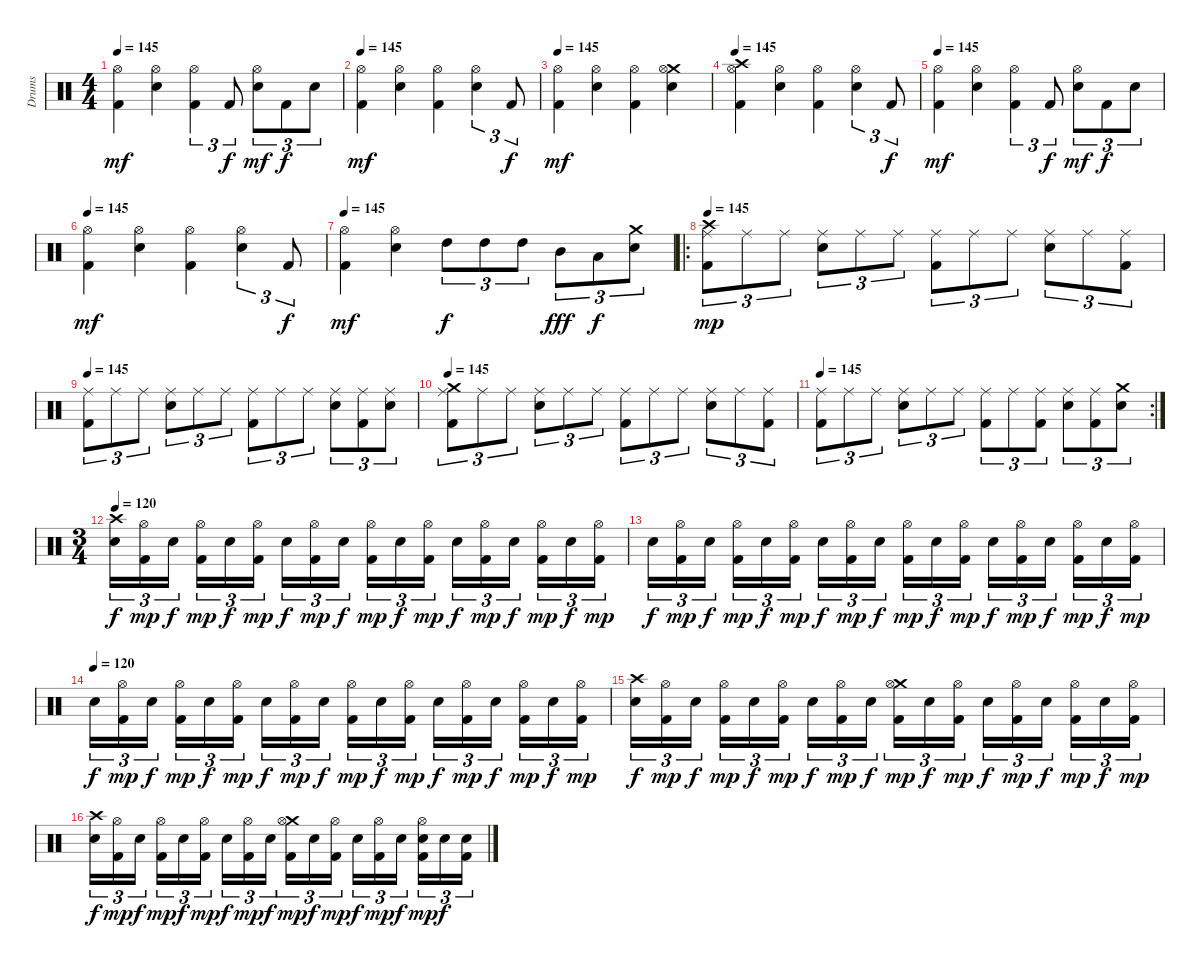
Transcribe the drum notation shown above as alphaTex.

\track ("Drums" "Drums") {instrument percussion}
\staff {score}
\articulation defaults
\ts (4 4)
\tempo 145
\clef neutral
\ks c
("Hi-Hat (open)" "Kick (hit) 2").4{dy mf} ("Hi-Hat (open)" "Electric Snare (hit)").4 ("Hi-Hat (open)" "Kick (hit) 2").4{tu (3 2)} "Kick (hit) 2".8{tu (3 2) dy f} ("Hi-Hat (open)" "Electric Snare (hit)").8{tu (3 2) dy mf} "Kick (hit) 2".8{tu (3 2) dy f} "Electric Snare (hit)".8{tu (3 2)} |
\tempo 145
("Hi-Hat (open)" "Kick (hit) 2").4{dy mf} ("Hi-Hat (open)" "Electric Snare (hit)").4 ("Hi-Hat (open)" "Kick (hit) 2").4 ("Hi-Hat (open)" "Electric Snare (hit)").4{tu (3 2)} "Kick (hit) 2".8{tu (3 2) dy f} |
\tempo 145
("Hi-Hat (open)" "Kick (hit) 2").4{dy mf} ("Hi-Hat (open)" "Electric Snare (hit)").4 ("Hi-Hat (open)" "Kick (hit) 2").4 ("Crash medium (hit)" "Hi-Hat (open)" "Electric Snare (hit)").4 |
\tempo 145
("Crash high (hit)" "Hi-Hat (open)" "Kick (hit) 2").4 ("Hi-Hat (open)" "Electric Snare (hit)").4 ("Hi-Hat (open)" "Kick (hit) 2").4 ("Hi-Hat (open)" "Electric Snare (hit)").4{tu (3 2)} "Kick (hit) 2".8{tu (3 2) dy f} |
\tempo 145
("Hi-Hat (open)" "Kick (hit) 2").4{dy mf} ("Hi-Hat (open)" "Electric Snare (hit)").4 ("Hi-Hat (open)" "Kick (hit) 2").4{tu (3 2)} "Kick (hit) 2".8{tu (3 2) dy f} ("Hi-Hat (open)" "Electric Snare (hit)").8{tu (3 2) dy mf} "Kick (hit) 2".8{tu (3 2) dy f} "Electric Snare (hit)".8{tu (3 2)} |
\tempo 145
("Hi-Hat (open)" "Kick (hit) 2").4{dy mf} ("Hi-Hat (open)" "Electric Snare (hit)").4 ("Hi-Hat (open)" "Kick (hit) 2").4 ("Hi-Hat (open)" "Electric Snare (hit)").4{tu (3 2)} "Kick (hit) 2".8{tu (3 2) dy f} |
\tempo 145
("Hi-Hat (open)" "Kick (hit) 2").4{dy mf} ("Hi-Hat (open)" "Electric Snare (hit)").4 "High Tom (hit)".8{tu (3 2) dy f} "High Tom (hit)".8{tu (3 2)} "High Tom (hit)".8{tu (3 2)} "Mid Tom (hit)".8{tu (3 2) dy fff} "Low Tom (hit)".8{tu (3 2) dy f} ("Crash medium (hit)" "Electric Snare (hit)").8{tu (3 2)} |
\ro
\tempo 145
("Crash high (hit)" "Ride (middle)" "Kick (hit) 2").8{tu (3 2) dy mp} "Ride (middle)".8{tu (3 2)} "Ride (middle)".8{tu (3 2)} ("Ride (middle)" "Electric Snare (hit)").8{tu (3 2)} "Ride (middle)".8{tu (3 2)} "Ride (middle)".8{tu (3 2)} ("Ride (middle)" "Kick (hit) 2").8{tu (3 2)} "Ride (middle)".8{tu (3 2)} "Ride (middle)".8{tu (3 2)} ("Ride (middle)" "Electric Snare (hit)").8{tu (3 2)} "Ride (middle)".8{tu (3 2)} ("Ride (middle)" "Kick (hit) 2").8{tu (3 2)} |
\tempo 145
("Ride (middle)" "Kick (hit) 2").8{tu (3 2)} "Ride (middle)".8{tu (3 2)} "Ride (middle)".8{tu (3 2)} ("Ride (middle)" "Electric Snare (hit)").8{tu (3 2)} "Ride (middle)".8{tu (3 2)} "Ride (middle)".8{tu (3 2)} ("Ride (middle)" "Kick (hit) 2").8{tu (3 2)} "Ride (middle)".8{tu (3 2)} "Ride (middle)".8{tu (3 2)} ("Ride (middle)" "Electric Snare (hit)").8{tu (3 2)} ("Ride (middle)" "Kick (hit) 2").8{tu (3 2)} ("Ride (middle)" "Electric Snare (hit)").8{tu (3 2)} |
\tempo 145
("Crash medium (hit)" "Ride (middle)" "Kick (hit) 2").8{tu (3 2)} "Ride (middle)".8{tu (3 2)} "Ride (middle)".8{tu (3 2)} ("Ride (middle)" "Electric Snare (hit)").8{tu (3 2)} "Ride (middle)".8{tu (3 2)} "Ride (middle)".8{tu (3 2)} ("Ride (middle)" "Kick (hit) 2").8{tu (3 2)} "Ride (middle)".8{tu (3 2)} "Ride (middle)".8{tu (3 2)} ("Ride (middle)" "Electric Snare (hit)").8{tu (3 2)} "Ride (middle)".8{tu (3 2)} ("Ride (middle)" "Kick (hit) 2").8{tu (3 2)} |
\rc 2
\tempo 145
("Ride (middle)" "Kick (hit) 2").8{tu (3 2)} "Ride (middle)".8{tu (3 2)} "Ride (middle)".8{tu (3 2)} ("Ride (middle)" "Electric Snare (hit)").8{tu (3 2)} "Ride (middle)".8{tu (3 2)} "Ride (middle)".8{tu (3 2)} ("Ride (middle)" "Kick (hit) 2").8{tu (3 2)} "Ride (middle)".8{tu (3 2)} ("Ride (middle)" "Kick (hit) 2").8{tu (3 2)} ("Ride (middle)" "Electric Snare (hit)").8{tu (3 2)} ("Ride (middle)" "Kick (hit) 2").8{tu (3 2)} ("Crash medium (hit)" "Electric Snare (hit)").8{tu (3 2)} |
\ts (3 4)
\tempo 120
("Crash high (hit)" "Electric Snare (hit)").16{tu (3 2) dy f} ("Hi-Hat (open)" "Kick (hit) 2").16{tu (3 2) dy mp} "Electric Snare (hit)".16{tu (3 2) dy f} ("Hi-Hat (open)" "Kick (hit) 2").16{tu (3 2) dy mp} "Electric Snare (hit)".16{tu (3 2) dy f} ("Hi-Hat (open)" "Kick (hit) 2").16{tu (3 2) dy mp} "Electric Snare (hit)".16{tu (3 2) dy f} ("Hi-Hat (open)" "Kick (hit) 2").16{tu (3 2) dy mp} "Electric Snare (hit)".16{tu (3 2) dy f} ("Hi-Hat (open)" "Kick (hit) 2").16{tu (3 2) dy mp} "Electric Snare (hit)".16{tu (3 2) dy f} ("Hi-Hat (open)" "Kick (hit) 2").16{tu (3 2) dy mp} "Electric Snare (hit)".16{tu (3 2) dy f} ("Hi-Hat (open)" "Kick (hit) 2").16{tu (3 2) dy mp} "Electric Snare (hit)".16{tu (3 2) dy f} ("Hi-Hat (open)" "Kick (hit) 2").16{tu (3 2) dy mp} "Electric Snare (hit)".16{tu (3 2) dy f} ("Hi-Hat (open)" "Kick (hit) 2").16{tu (3 2) dy mp} |
"Electric Snare (hit)".16{tu (3 2) dy f} ("Hi-Hat (open)" "Kick (hit) 2").16{tu (3 2) dy mp} "Electric Snare (hit)".16{tu (3 2) dy f} ("Hi-Hat (open)" "Kick (hit) 2").16{tu (3 2) dy mp} "Electric Snare (hit)".16{tu (3 2) dy f} ("Hi-Hat (open)" "Kick (hit) 2").16{tu (3 2) dy mp} "Electric Snare (hit)".16{tu (3 2) dy f} ("Hi-Hat (open)" "Kick (hit) 2").16{tu (3 2) dy mp} "Electric Snare (hit)".16{tu (3 2) dy f} ("Hi-Hat (open)" "Kick (hit) 2").16{tu (3 2) dy mp} "Electric Snare (hit)".16{tu (3 2) dy f} ("Hi-Hat (open)" "Kick (hit) 2").16{tu (3 2) dy mp} "Electric Snare (hit)".16{tu (3 2) dy f} ("Hi-Hat (open)" "Kick (hit) 2").16{tu (3 2) dy mp} "Electric Snare (hit)".16{tu (3 2) dy f} ("Hi-Hat (open)" "Kick (hit) 2").16{tu (3 2) dy mp} "Electric Snare (hit)".16{tu (3 2) dy f} ("Hi-Hat (open)" "Kick (hit) 2").16{tu (3 2) dy mp} |
\tempo (120)
"Electric Snare (hit)".16{tu (3 2) dy f} ("Hi-Hat (open)" "Kick (hit) 2").16{tu (3 2) dy mp} "Electric Snare (hit)".16{tu (3 2) dy f} ("Hi-Hat (open)" "Kick (hit) 2").16{tu (3 2) dy mp} "Electric Snare (hit)".16{tu (3 2) dy f} ("Hi-Hat (open)" "Kick (hit) 2").16{tu (3 2) dy mp} "Electric Snare (hit)".16{tu (3 2) dy f} ("Hi-Hat (open)" "Kick (hit) 2").16{tu (3 2) dy mp} "Electric Snare (hit)".16{tu (3 2) dy f} ("Hi-Hat (open)" "Kick (hit) 2").16{tu (3 2) dy mp} "Electric Snare (hit)".16{tu (3 2) dy f} ("Hi-Hat (open)" "Kick (hit) 2").16{tu (3 2) dy mp} "Electric Snare (hit)".16{tu (3 2) dy f} ("Hi-Hat (open)" "Kick (hit) 2").16{tu (3 2) dy mp} "Electric Snare (hit)".16{tu (3 2) dy f} ("Hi-Hat (open)" "Kick (hit) 2").16{tu (3 2) dy mp} "Electric Snare (hit)".16{tu (3 2) dy f} ("Hi-Hat (open)" "Kick (hit) 2").16{tu (3 2) dy mp} |
("Crash high (hit)" "Electric Snare (hit)").16{tu (3 2) dy f} ("Hi-Hat (open)" "Kick (hit) 2").16{tu (3 2) dy mp} "Electric Snare (hit)".16{tu (3 2) dy f} ("Hi-Hat (open)" "Kick (hit) 2").16{tu (3 2) dy mp} "Electric Snare (hit)".16{tu (3 2) dy f} ("Hi-Hat (open)" "Kick (hit) 2").16{tu (3 2) dy mp} "Electric Snare (hit)".16{tu (3 2) dy f} ("Hi-Hat (open)" "Kick (hit) 2").16{tu (3 2) dy mp} "Electric Snare (hit)".16{tu (3 2) dy f} ("Crash medium (hit)" "Hi-Hat (open)" "Kick (hit) 2").16{tu (3 2) dy mp} "Electric Snare (hit)".16{tu (3 2) dy f} ("Hi-Hat (open)" "Kick (hit) 2").16{tu (3 2) dy mp} "Electric Snare (hit)".16{tu (3 2) dy f} ("Hi-Hat (open)" "Kick (hit) 2").16{tu (3 2) dy mp} "Electric Snare (hit)".16{tu (3 2) dy f} ("Hi-Hat (open)" "Kick (hit) 2").16{tu (3 2) dy mp} "Electric Snare (hit)".16{tu (3 2) dy f} ("Hi-Hat (open)" "Kick (hit) 2").16{tu (3 2) dy mp} |
("Crash high (hit)" "Electric Snare (hit)").16{tu (3 2) dy f} ("Hi-Hat (open)" "Kick (hit) 2").16{tu (3 2) dy mp} "Electric Snare (hit)".16{tu (3 2) dy f} ("Hi-Hat (open)" "Kick (hit) 2").16{tu (3 2) dy mp} "Electric Snare (hit)".16{tu (3 2) dy f} ("Hi-Hat (open)" "Kick (hit) 2").16{tu (3 2) dy mp} "Electric Snare (hit)".16{tu (3 2) dy f} ("Hi-Hat (open)" "Kick (hit) 2").16{tu (3 2) dy mp} "Electric Snare (hit)".16{tu (3 2) dy f} ("Crash medium (hit)" "Hi-Hat (open)" "Kick (hit) 2").16{tu (3 2) dy mp} "Electric Snare (hit)".16{tu (3 2) dy f} ("Hi-Hat (open)" "Kick (hit) 2").16{tu (3 2) dy mp} "Electric Snare (hit)".16{tu (3 2) dy f} ("Hi-Hat (open)" "Kick (hit) 2").16{tu (3 2) dy mp} "Electric Snare (hit)".16{tu (3 2) dy f} ("Hi-Hat (open)" "Electric Snare (hit)" "Kick (hit) 2").16{tu (3 2) dy mp} "Electric Snare (hit)".16{tu (3 2) dy f} ("Electric Snare (hit)" "Kick (hit) 2").16{tu (3 2)}
